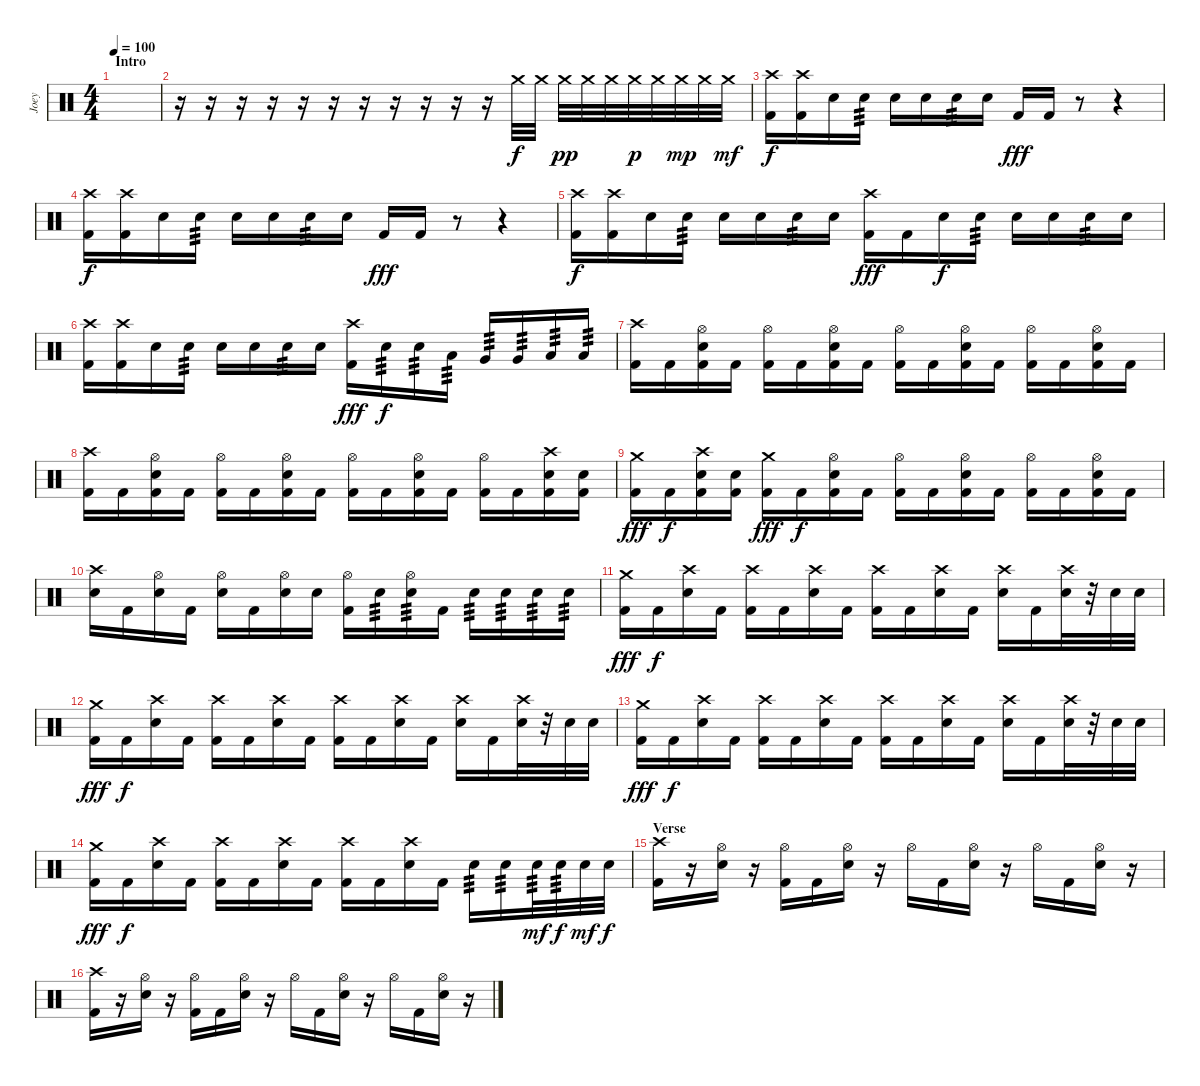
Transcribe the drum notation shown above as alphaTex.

\track ("Joey" "Joey") {instrument percussion}
\staff {score}
\articulation defaults
\ts (4 4)
\section ("" "Intro")
\tempo 100
\clef neutral
\ks c
|
r.16 r.16 r.16 r.16 r.16 r.16 r.16 r.16 r.16 r.16 r.16 "Crash medium (hit)".32 "Crash medium (hit)".32 "Crash medium (hit)".32{dy pp} "Crash medium (hit)".32 "Crash medium (hit)".32 "Crash medium (hit)".32{dy p} "Crash medium (hit)".32 "Crash medium (hit)".32{dy mp} "Crash medium (hit)".32 "Crash medium (hit)".32{dy mf} |
("Crash high (hit)" "Kick (hit) 2").16{dy f} ("Crash high (hit)" "Kick (hit) 2").16 "Electric Snare (hit)".16 "Electric Snare (hit)".16{tp 3} "Electric Snare (hit)".16 "Electric Snare (hit)".16 "Electric Snare (hit)".16{tp 3} "Electric Snare (hit)".16 "Kick (hit) 2".16{dy fff} "Kick (hit) 2".16 r.8 r.4 |
("Crash high (hit)" "Kick (hit) 2").16{dy f} ("Crash high (hit)" "Kick (hit) 2").16 "Electric Snare (hit)".16 "Electric Snare (hit)".16{tp 3} "Electric Snare (hit)".16 "Electric Snare (hit)".16 "Electric Snare (hit)".16{tp 3} "Electric Snare (hit)".16 "Kick (hit) 2".16{dy fff} "Kick (hit) 2".16 r.8 r.4 |
("Crash high (hit)" "Kick (hit) 2").16{dy f} ("Crash high (hit)" "Kick (hit) 2").16 "Electric Snare (hit)".16 "Electric Snare (hit)".16{tp 3} "Electric Snare (hit)".16 "Electric Snare (hit)".16 "Electric Snare (hit)".16{tp 3} "Electric Snare (hit)".16 ("Crash high (hit)" "Kick (hit) 2").16{dy fff} "Kick (hit) 2".16 "Electric Snare (hit)".16{dy f} "Electric Snare (hit)".16{tp 3} "Electric Snare (hit)".16 "Electric Snare (hit)".16 "Electric Snare (hit)".16{tp 3} "Electric Snare (hit)".16 |
("Crash high (hit)" "Kick (hit) 2").16 ("Crash high (hit)" "Kick (hit) 2").16 "Electric Snare (hit)".16 "Electric Snare (hit)".16{tp 3} "Electric Snare (hit)".16 "Electric Snare (hit)".16 "Electric Snare (hit)".16{tp 3} "Electric Snare (hit)".16 ("Crash high (hit)" "Kick (hit) 2").16{dy fff} "Electric Snare (hit)".16{tp 3 dy f} "Electric Snare (hit)".16{tp 3} "Low Tom (hit)".16{tp 3} "Very Low Tom (hit)".16{tp 3} "Very Low Tom (hit)".16{tp 3} "Low Floor Tom (hit)".16{tp 3} "Low Floor Tom (hit)".16{tp 3} |
("Crash high (hit)" "Kick (hit) 2").16 "Kick (hit) 2".16 ("Hi-Hat (open)" "Electric Snare (hit)" "Kick (hit) 2").16 "Kick (hit) 2".16 ("Hi-Hat (open)" "Kick (hit) 2").16 "Kick (hit) 2".16 ("Hi-Hat (open)" "Electric Snare (hit)" "Kick (hit) 2").16 "Kick (hit) 2".16 ("Hi-Hat (open)" "Kick (hit) 2").16 "Kick (hit) 2".16 ("Hi-Hat (open)" "Electric Snare (hit)" "Kick (hit) 2").16 "Kick (hit) 2".16 ("Hi-Hat (open)" "Kick (hit) 2").16 "Kick (hit) 2".16 ("Hi-Hat (open)" "Electric Snare (hit)" "Kick (hit) 2").16 "Kick (hit) 2".16 |
("Crash high (hit)" "Kick (hit) 2").16 "Kick (hit) 2".16 ("Hi-Hat (open)" "Electric Snare (hit)" "Kick (hit) 2").16 "Kick (hit) 2".16 ("Hi-Hat (open)" "Kick (hit) 2").16 "Kick (hit) 2".16 ("Hi-Hat (open)" "Electric Snare (hit)" "Kick (hit) 2").16 "Kick (hit) 2".16 ("Hi-Hat (open)" "Kick (hit) 2").16 "Kick (hit) 2".16 ("Hi-Hat (open)" "Electric Snare (hit)" "Kick (hit) 2").16 "Kick (hit) 2".16 ("Hi-Hat (open)" "Kick (hit) 2").16 "Kick (hit) 2".16 ("Crash high (hit)" "Electric Snare (hit)" "Kick (hit) 2").16 ("Electric Snare (hit)" "Kick (hit) 2").16 |
("Crash medium (hit)" "Kick (hit) 2").16{dy fff} "Kick (hit) 2".16{dy f} ("Crash high (hit)" "Electric Snare (hit)" "Kick (hit) 2").16 ("Electric Snare (hit)" "Kick (hit) 2").16 ("Crash medium (hit)" "Kick (hit) 2").16{dy fff} "Kick (hit) 2".16{dy f} ("Hi-Hat (open)" "Electric Snare (hit)" "Kick (hit) 2").16 "Kick (hit) 2".16 ("Hi-Hat (open)" "Kick (hit) 2").16 "Kick (hit) 2".16 ("Hi-Hat (open)" "Electric Snare (hit)" "Kick (hit) 2").16 "Kick (hit) 2".16 ("Hi-Hat (open)" "Kick (hit) 2").16 "Kick (hit) 2".16 ("Hi-Hat (open)" "Electric Snare (hit)" "Kick (hit) 2").16 "Kick (hit) 2".16 |
("Crash high (hit)" "Electric Snare (hit)").16 "Kick (hit) 2".16 ("Hi-Hat (open)" "Electric Snare (hit)").16 "Kick (hit) 2".16 ("Hi-Hat (open)" "Electric Snare (hit)").16 "Kick (hit) 2".16 ("Hi-Hat (open)" "Electric Snare (hit)").16 "Electric Snare (hit)".16 ("Hi-Hat (open)" "Kick (hit) 2").16 "Electric Snare (hit)".16{tp 3} ("Hi-Hat (open)" "Electric Snare (hit)").16{tp 3} "Kick (hit) 2".16 "Electric Snare (hit)".16{tp 3} "Electric Snare (hit)".16{tp 3} "Electric Snare (hit)".16{tp 3} "Electric Snare (hit)".16{tp 3} |
("Crash medium (hit)" "Kick (hit) 2").16{dy fff} "Kick (hit) 2".16{dy f} ("Crash high (hit)" "Electric Snare (hit)").16 "Kick (hit) 2".16 ("Crash high (hit)" "Kick (hit) 2").16 "Kick (hit) 2".16 ("Crash high (hit)" "Electric Snare (hit)").16 "Kick (hit) 2".16 ("Crash high (hit)" "Kick (hit) 2").16 "Kick (hit) 2".16 ("Crash high (hit)" "Electric Snare (hit)").16 "Kick (hit) 2".16 ("Crash high (hit)" "Electric Snare (hit)").16 "Kick (hit) 2".16 ("Crash high (hit)" "Electric Snare (hit)").32 r.32 "Electric Snare (hit)".32 "Electric Snare (hit)".32 |
("Crash medium (hit)" "Kick (hit) 2").16{dy fff} "Kick (hit) 2".16{dy f} ("Crash high (hit)" "Electric Snare (hit)").16 "Kick (hit) 2".16 ("Crash high (hit)" "Kick (hit) 2").16 "Kick (hit) 2".16 ("Crash high (hit)" "Electric Snare (hit)").16 "Kick (hit) 2".16 ("Crash high (hit)" "Kick (hit) 2").16 "Kick (hit) 2".16 ("Crash high (hit)" "Electric Snare (hit)").16 "Kick (hit) 2".16 ("Crash high (hit)" "Electric Snare (hit)").16 "Kick (hit) 2".16 ("Crash high (hit)" "Electric Snare (hit)").32 r.32 "Electric Snare (hit)".32 "Electric Snare (hit)".32 |
("Crash medium (hit)" "Kick (hit) 2").16{dy fff} "Kick (hit) 2".16{dy f} ("Crash high (hit)" "Electric Snare (hit)").16 "Kick (hit) 2".16 ("Crash high (hit)" "Kick (hit) 2").16 "Kick (hit) 2".16 ("Crash high (hit)" "Electric Snare (hit)").16 "Kick (hit) 2".16 ("Crash high (hit)" "Kick (hit) 2").16 "Kick (hit) 2".16 ("Crash high (hit)" "Electric Snare (hit)").16 "Kick (hit) 2".16 ("Crash high (hit)" "Electric Snare (hit)").16 "Kick (hit) 2".16 ("Crash high (hit)" "Electric Snare (hit)").32 r.32 "Electric Snare (hit)".32 "Electric Snare (hit)".32 |
("Crash medium (hit)" "Kick (hit) 2").16{dy fff} "Kick (hit) 2".16{dy f} ("Crash high (hit)" "Electric Snare (hit)").16 "Kick (hit) 2".16 ("Crash high (hit)" "Kick (hit) 2").16 "Kick (hit) 2".16 ("Crash high (hit)" "Electric Snare (hit)").16 "Kick (hit) 2".16 ("Crash high (hit)" "Kick (hit) 2").16 "Kick (hit) 2".16 ("Crash high (hit)" "Electric Snare (hit)").16 "Kick (hit) 2".16 "Electric Snare (hit)".16{tp 3} "Electric Snare (hit)".16{tp 3} "Electric Snare (hit)".32{tp 3 dy mf} "Electric Snare (hit)".32{tp 3 dy f} "Electric Snare (hit)".32{dy mf} "Electric Snare (hit)".32{dy f} |
\section ("" "Verse")
("Crash high (hit)" "Kick (hit) 2").16 r.16 ("Hi-Hat (open)" "Electric Snare (hit)").16 r.16 ("Hi-Hat (open)" "Kick (hit) 2").16 "Kick (hit) 2".16 ("Hi-Hat (open)" "Electric Snare (hit)").16 r.16 "Hi-Hat (open)".16 "Kick (hit) 2".16 ("Hi-Hat (open)" "Electric Snare (hit)").16 r.16 "Hi-Hat (open)".16 "Kick (hit) 2".16 ("Hi-Hat (open)" "Electric Snare (hit)").16 r.16 |
("Crash high (hit)" "Kick (hit) 2").16 r.16 ("Hi-Hat (open)" "Electric Snare (hit)").16 r.16 ("Hi-Hat (open)" "Kick (hit) 2").16 "Kick (hit) 2".16 ("Hi-Hat (open)" "Electric Snare (hit)").16 r.16 "Hi-Hat (open)".16 "Kick (hit) 2".16 ("Hi-Hat (open)" "Electric Snare (hit)").16 r.16 "Hi-Hat (open)".16 "Kick (hit) 2".16 ("Hi-Hat (open)" "Electric Snare (hit)").16 r.16
